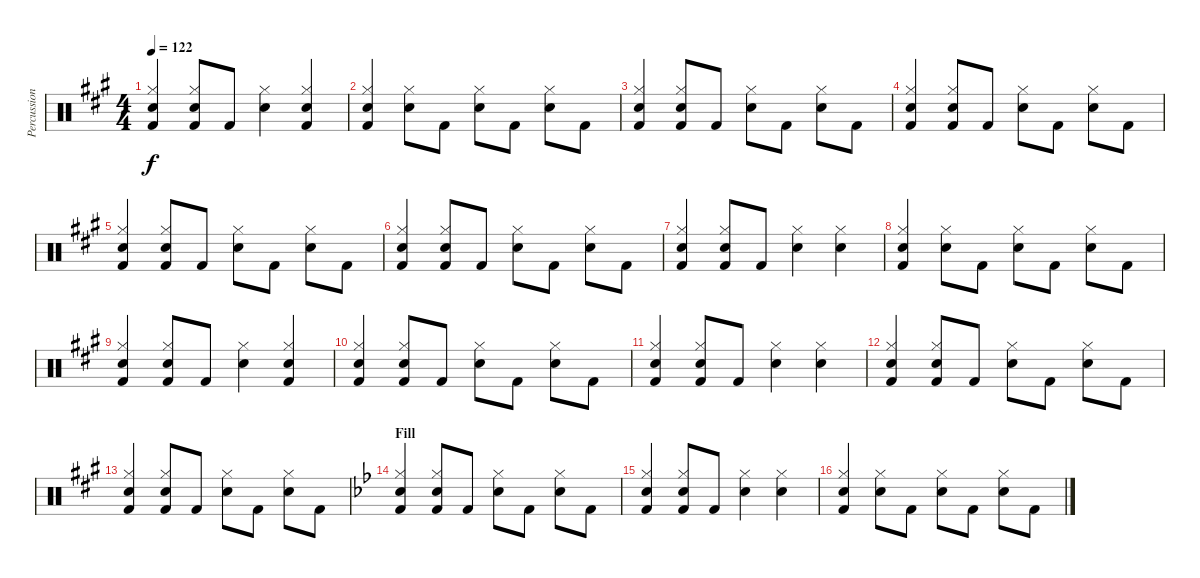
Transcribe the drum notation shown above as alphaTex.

\track ("Percussion" "Percussion") {instrument percussion}
\staff {score}
\articulation defaults
\ts (4 4)
\tempo 122
\clef neutral
\ks a
("Hand Clap (hit)" "Hi-Hat (closed)" "Kick (hit) 2").4{dy f} ("Hand Clap (hit)" "Hi-Hat (closed)" "Kick (hit) 2").8 "Kick (hit) 2".8 ("Hand Clap (hit)" "Hi-Hat (closed)").4 ("Hand Clap (hit)" "Hi-Hat (closed)" "Kick (hit) 2").4 |
("Hand Clap (hit)" "Hi-Hat (closed)" "Kick (hit) 2").4 ("Hand Clap (hit)" "Hi-Hat (closed)").8 "Kick (hit) 2".8 ("Hand Clap (hit)" "Hi-Hat (closed)").8 "Kick (hit) 2".8 ("Hand Clap (hit)" "Hi-Hat (closed)").8 "Kick (hit) 2".8 |
("Hand Clap (hit)" "Hi-Hat (closed)" "Kick (hit) 2").4 ("Hand Clap (hit)" "Hi-Hat (closed)" "Kick (hit) 2").8 "Kick (hit) 2".8 ("Hand Clap (hit)" "Hi-Hat (closed)").8 "Kick (hit) 2".8 ("Hand Clap (hit)" "Hi-Hat (closed)").8 "Kick (hit) 2".8 |
("Hand Clap (hit)" "Hi-Hat (closed)" "Kick (hit) 2").4 ("Hand Clap (hit)" "Hi-Hat (closed)" "Kick (hit) 2").8 "Kick (hit) 2".8 ("Hand Clap (hit)" "Hi-Hat (closed)").8 "Kick (hit) 2".8 ("Hand Clap (hit)" "Hi-Hat (closed)").8 "Kick (hit) 2".8 |
("Hand Clap (hit)" "Hi-Hat (closed)" "Kick (hit) 2").4 ("Hand Clap (hit)" "Hi-Hat (closed)" "Kick (hit) 2").8 "Kick (hit) 2".8 ("Hand Clap (hit)" "Hi-Hat (closed)").8 "Kick (hit) 2".8 ("Hand Clap (hit)" "Hi-Hat (closed)").8 "Kick (hit) 2".8 |
("Hand Clap (hit)" "Hi-Hat (closed)" "Kick (hit) 2").4 ("Hand Clap (hit)" "Hi-Hat (closed)" "Kick (hit) 2").8 "Kick (hit) 2".8 ("Hand Clap (hit)" "Hi-Hat (closed)").8 "Kick (hit) 2".8 ("Hand Clap (hit)" "Hi-Hat (closed)").8 "Kick (hit) 2".8 |
("Hand Clap (hit)" "Hi-Hat (closed)" "Kick (hit) 2").4 ("Hand Clap (hit)" "Hi-Hat (closed)" "Kick (hit) 2").8 "Kick (hit) 2".8 ("Hand Clap (hit)" "Hi-Hat (closed)").4 ("Hand Clap (hit)" "Hi-Hat (closed)").4 |
("Hand Clap (hit)" "Hi-Hat (closed)" "Kick (hit) 2").4 ("Hand Clap (hit)" "Hi-Hat (closed)").8 "Kick (hit) 2".8 ("Hand Clap (hit)" "Hi-Hat (closed)").8 "Kick (hit) 2".8 ("Hand Clap (hit)" "Hi-Hat (closed)").8 "Kick (hit) 2".8 |
("Hand Clap (hit)" "Hi-Hat (closed)" "Kick (hit) 2").4 ("Hand Clap (hit)" "Hi-Hat (closed)" "Kick (hit) 2").8 "Kick (hit) 2".8 ("Hand Clap (hit)" "Hi-Hat (closed)").4 ("Hand Clap (hit)" "Hi-Hat (closed)" "Kick (hit) 2").4 |
("Hand Clap (hit)" "Hi-Hat (closed)" "Kick (hit) 2").4 ("Hand Clap (hit)" "Hi-Hat (closed)" "Kick (hit) 2").8 "Kick (hit) 2".8 ("Hand Clap (hit)" "Hi-Hat (closed)").8 "Kick (hit) 2".8 ("Hand Clap (hit)" "Hi-Hat (closed)").8 "Kick (hit) 2".8 |
("Hand Clap (hit)" "Hi-Hat (closed)" "Kick (hit) 2").4 ("Hand Clap (hit)" "Hi-Hat (closed)" "Kick (hit) 2").8 "Kick (hit) 2".8 ("Hand Clap (hit)" "Hi-Hat (closed)").4 ("Hand Clap (hit)" "Hi-Hat (closed)").4 |
("Hand Clap (hit)" "Hi-Hat (closed)" "Kick (hit) 2").4 ("Hand Clap (hit)" "Hi-Hat (closed)" "Kick (hit) 2").8 "Kick (hit) 2".8 ("Hand Clap (hit)" "Hi-Hat (closed)").8 "Kick (hit) 2".8 ("Hand Clap (hit)" "Hi-Hat (closed)").8 "Kick (hit) 2".8 |
("Hand Clap (hit)" "Hi-Hat (closed)" "Kick (hit) 2").4 ("Hand Clap (hit)" "Hi-Hat (closed)" "Kick (hit) 2").8 "Kick (hit) 2".8 ("Hand Clap (hit)" "Hi-Hat (closed)").8 "Kick (hit) 2".8 ("Hand Clap (hit)" "Hi-Hat (closed)").8 "Kick (hit) 2".8 |
\section ("" "Fill")
\ks bb
("Hand Clap (hit)" "Hi-Hat (closed)" "Kick (hit) 2").4 ("Hand Clap (hit)" "Hi-Hat (closed)" "Kick (hit) 2").8 "Kick (hit) 2".8 ("Hand Clap (hit)" "Hi-Hat (closed)").8 "Kick (hit) 2".8 ("Hand Clap (hit)" "Hi-Hat (closed)").8 "Kick (hit) 2".8 |
("Hand Clap (hit)" "Hi-Hat (closed)" "Kick (hit) 2").4 ("Hand Clap (hit)" "Hi-Hat (closed)" "Kick (hit) 2").8 "Kick (hit) 2".8 ("Hand Clap (hit)" "Hi-Hat (closed)").4 ("Hand Clap (hit)" "Hi-Hat (closed)").4 |
("Hand Clap (hit)" "Hi-Hat (closed)" "Kick (hit) 2").4 ("Hand Clap (hit)" "Hi-Hat (closed)").8 "Kick (hit) 2".8 ("Hand Clap (hit)" "Hi-Hat (closed)").8 "Kick (hit) 2".8 ("Hand Clap (hit)" "Hi-Hat (closed)").8 "Kick (hit) 2".8
